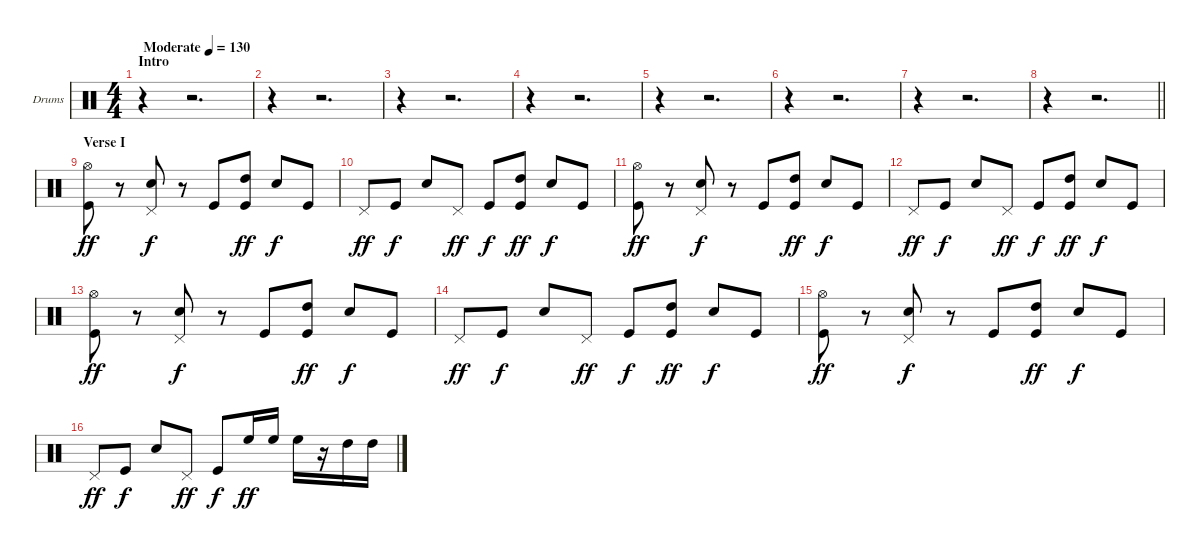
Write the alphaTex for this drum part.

\bracketExtendMode groupsimilarinstruments
\firstSystemTrackNameOrientation horizontal
\otherSystemsTrackNameOrientation horizontal
\track ("Drumkit" "Drums") {instrument percussion}
\staff {score}
\articulation defaults
\ts (4 4)
\beaming (8 2 2 2 2)
\section ("" "Intro")
\tempo (130 "Moderate")
\clef neutral
\ks c
r.4{dy ff} r.2{d} |
r.4 r.2{d} |
r.4 r.2{d} |
r.4 r.2{d} |
r.4 r.2{d} |
r.4 r.2{d} |
r.4 r.2{d} |
\barLineRight lightlight
r.4 r.2{d} |
\section ("" "Verse I")
("Hi-Hat (open)" "Kick (hit)").8 r.8 ("Pedal Hi-Hat (hit)" "Snare (hit) 2").8{dy f} r.8 "Kick (hit)".8 ("High Tom (hit)" "Kick (hit)").8{dy ff} "Snare (hit) 2".8{dy f} "Kick (hit)".8 |
"Pedal Hi-Hat (hit)".8{dy ff} "Kick (hit)".8{dy f} "Snare (hit) 2".8 "Pedal Hi-Hat (hit)".8{dy ff} "Kick (hit)".8{dy f} ("High Tom (hit)" "Kick (hit)").8{dy ff} "Snare (hit) 2".8{dy f} "Kick (hit)".8 |
("Hi-Hat (open)" "Kick (hit)").8{dy ff} r.8 ("Pedal Hi-Hat (hit)" "Snare (hit) 2").8{dy f} r.8 "Kick (hit)".8 ("High Tom (hit)" "Kick (hit)").8{dy ff} "Snare (hit) 2".8{dy f} "Kick (hit)".8 |
"Pedal Hi-Hat (hit)".8{dy ff} "Kick (hit)".8{dy f} "Snare (hit) 2".8 "Pedal Hi-Hat (hit)".8{dy ff} "Kick (hit)".8{dy f} ("High Tom (hit)" "Kick (hit)").8{dy ff} "Snare (hit) 2".8{dy f} "Kick (hit)".8 |
("Hi-Hat (open)" "Kick (hit)").8{dy ff} r.8 ("Pedal Hi-Hat (hit)" "Snare (hit) 2").8{dy f} r.8 "Kick (hit)".8 ("High Tom (hit)" "Kick (hit)").8{dy ff} "Snare (hit) 2".8{dy f} "Kick (hit)".8 |
"Pedal Hi-Hat (hit)".8{dy ff} "Kick (hit)".8{dy f} "Snare (hit) 2".8 "Pedal Hi-Hat (hit)".8{dy ff} "Kick (hit)".8{dy f} ("High Tom (hit)" "Kick (hit)").8{dy ff} "Snare (hit) 2".8{dy f} "Kick (hit)".8 |
("Hi-Hat (open)" "Kick (hit)").8{dy ff} r.8 ("Pedal Hi-Hat (hit)" "Snare (hit) 2").8{dy f} r.8 "Kick (hit)".8 ("High Tom (hit)" "Kick (hit)").8{dy ff} "Snare (hit) 2".8{dy f} "Kick (hit)".8 |
"Pedal Hi-Hat (hit)".8{dy ff} "Kick (hit)".8{dy f} "Snare (hit) 2".8 "Pedal Hi-Hat (hit)".8{dy ff} "Kick (hit)".8{dy f} "High Floor Tom (hit)".16{dy ff} "High Floor Tom (hit)".16 "High Floor Tom (hit)".16 r.16 "High Tom (hit)".16 "High Tom (hit)".16
